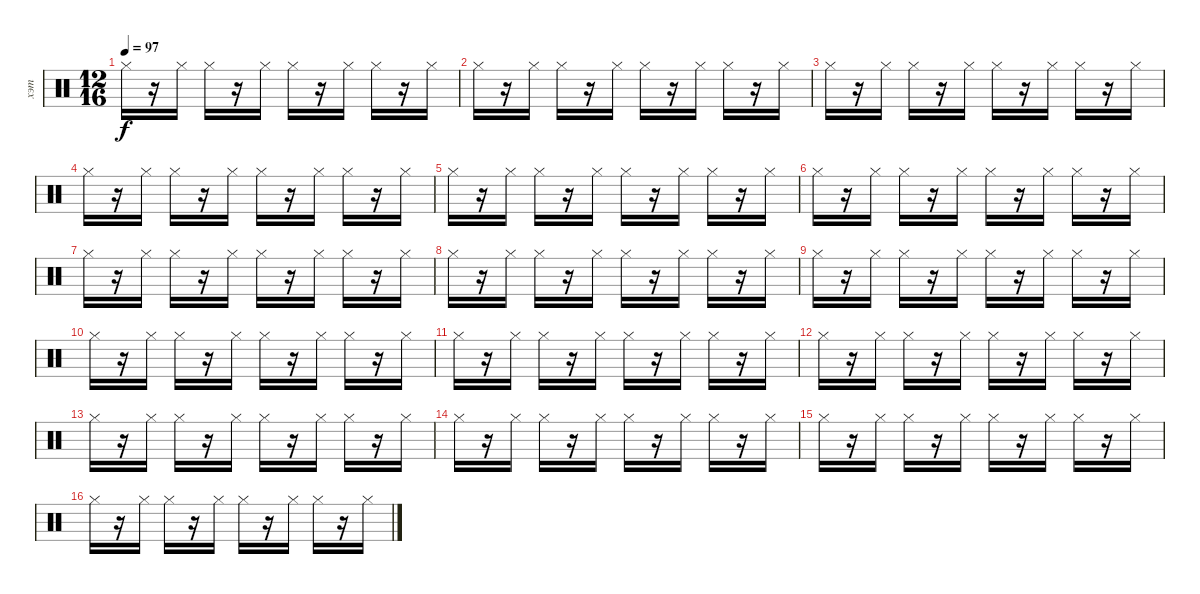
\track ("хэт" "хэт") {instrument percussion}
\staff {score}
\articulation defaults
\ts (12 16)
\tempo 97
\clef neutral
\ks c "Hi-Hat (closed)".16{dy f}
r.16 "Hi-Hat (closed)".16 "Hi-Hat (closed)".16 r.16 "Hi-Hat (closed)".16 "Hi-Hat (closed)".16 r.16 "Hi-Hat (closed)".16 "Hi-Hat (closed)".16 r.16 "Hi-Hat (closed)".16 |
"Hi-Hat (closed)".16 r.16 "Hi-Hat (closed)".16 "Hi-Hat (closed)".16 r.16 "Hi-Hat (closed)".16 "Hi-Hat (closed)".16 r.16 "Hi-Hat (closed)".16 "Hi-Hat (closed)".16 r.16 "Hi-Hat (closed)".16 |
"Hi-Hat (closed)".16 r.16 "Hi-Hat (closed)".16 "Hi-Hat (closed)".16 r.16 "Hi-Hat (closed)".16 "Hi-Hat (closed)".16 r.16 "Hi-Hat (closed)".16 "Hi-Hat (closed)".16 r.16 "Hi-Hat (closed)".16 |
"Hi-Hat (closed)".16 r.16 "Hi-Hat (closed)".16 "Hi-Hat (closed)".16 r.16 "Hi-Hat (closed)".16 "Hi-Hat (closed)".16 r.16 "Hi-Hat (closed)".16 "Hi-Hat (closed)".16 r.16 "Hi-Hat (closed)".16 |
"Hi-Hat (closed)".16 r.16 "Hi-Hat (closed)".16 "Hi-Hat (closed)".16 r.16 "Hi-Hat (closed)".16 "Hi-Hat (closed)".16 r.16 "Hi-Hat (closed)".16 "Hi-Hat (closed)".16 r.16 "Hi-Hat (closed)".16 |
"Hi-Hat (closed)".16 r.16 "Hi-Hat (closed)".16 "Hi-Hat (closed)".16 r.16 "Hi-Hat (closed)".16 "Hi-Hat (closed)".16 r.16 "Hi-Hat (closed)".16 "Hi-Hat (closed)".16 r.16 "Hi-Hat (closed)".16 |
"Hi-Hat (closed)".16 r.16 "Hi-Hat (closed)".16 "Hi-Hat (closed)".16 r.16 "Hi-Hat (closed)".16 "Hi-Hat (closed)".16 r.16 "Hi-Hat (closed)".16 "Hi-Hat (closed)".16 r.16 "Hi-Hat (closed)".16 |
"Hi-Hat (closed)".16 r.16 "Hi-Hat (closed)".16 "Hi-Hat (closed)".16 r.16 "Hi-Hat (closed)".16 "Hi-Hat (closed)".16 r.16 "Hi-Hat (closed)".16 "Hi-Hat (closed)".16 r.16 "Hi-Hat (closed)".16 |
"Hi-Hat (closed)".16 r.16 "Hi-Hat (closed)".16 "Hi-Hat (closed)".16 r.16 "Hi-Hat (closed)".16 "Hi-Hat (closed)".16 r.16 "Hi-Hat (closed)".16 "Hi-Hat (closed)".16 r.16 "Hi-Hat (closed)".16 |
"Hi-Hat (closed)".16 r.16 "Hi-Hat (closed)".16 "Hi-Hat (closed)".16 r.16 "Hi-Hat (closed)".16 "Hi-Hat (closed)".16 r.16 "Hi-Hat (closed)".16 "Hi-Hat (closed)".16 r.16 "Hi-Hat (closed)".16 |
"Hi-Hat (closed)".16 r.16 "Hi-Hat (closed)".16 "Hi-Hat (closed)".16 r.16 "Hi-Hat (closed)".16 "Hi-Hat (closed)".16 r.16 "Hi-Hat (closed)".16 "Hi-Hat (closed)".16 r.16 "Hi-Hat (closed)".16 |
"Hi-Hat (closed)".16 r.16 "Hi-Hat (closed)".16 "Hi-Hat (closed)".16 r.16 "Hi-Hat (closed)".16 "Hi-Hat (closed)".16 r.16 "Hi-Hat (closed)".16 "Hi-Hat (closed)".16 r.16 "Hi-Hat (closed)".16 |
"Hi-Hat (closed)".16 r.16 "Hi-Hat (closed)".16 "Hi-Hat (closed)".16 r.16 "Hi-Hat (closed)".16 "Hi-Hat (closed)".16 r.16 "Hi-Hat (closed)".16 "Hi-Hat (closed)".16 r.16 "Hi-Hat (closed)".16 |
"Hi-Hat (closed)".16 r.16 "Hi-Hat (closed)".16 "Hi-Hat (closed)".16 r.16 "Hi-Hat (closed)".16 "Hi-Hat (closed)".16 r.16 "Hi-Hat (closed)".16 "Hi-Hat (closed)".16 r.16 "Hi-Hat (closed)".16 |
"Hi-Hat (closed)".16 r.16 "Hi-Hat (closed)".16 "Hi-Hat (closed)".16 r.16 "Hi-Hat (closed)".16 "Hi-Hat (closed)".16 r.16 "Hi-Hat (closed)".16 "Hi-Hat (closed)".16 r.16 "Hi-Hat (closed)".16 |
"Hi-Hat (closed)".16 r.16 "Hi-Hat (closed)".16 "Hi-Hat (closed)".16 r.16 "Hi-Hat (closed)".16 "Hi-Hat (closed)".16 r.16 "Hi-Hat (closed)".16 "Hi-Hat (closed)".16 r.16 "Hi-Hat (closed)".16
